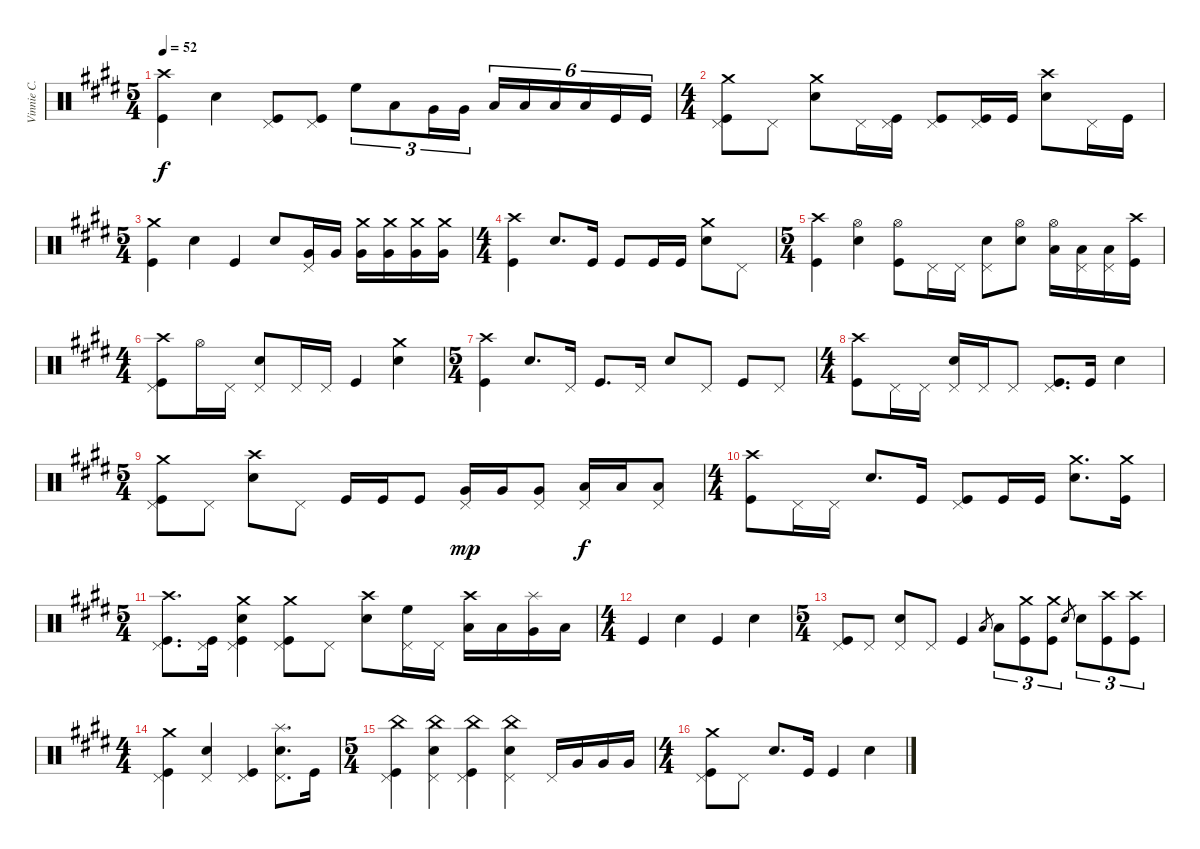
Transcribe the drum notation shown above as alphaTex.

\track ("Vinnie C." "Vinnie C.") {instrument percussion}
\staff {score}
\articulation defaults
\ts (5 4)
\tempo 52
\clef neutral
\ks e
("Crash high (hit)" "Kick (hit)").4{dy f} "Electric Snare (hit)".4 ("Pedal Hi-Hat (hit)" "Kick (hit)").8 ("Pedal Hi-Hat (hit)" "Kick (hit)").8 "High Floor Tom (hit)".8{tu (3 2)} "Low Tom (hit)".8{tu (3 2)} "Very Low Tom (hit)".16{tu (3 2)} "Very Low Tom (hit)".16{tu (3 2)} "Low Floor Tom (hit)".16{tu (6 4)} "Low Floor Tom (hit)".16{tu (6 4)} "Low Floor Tom (hit)".16{tu (6 4)} "Low Floor Tom (hit)".16{tu (6 4)} "Kick (hit)".16{tu (6 4)} "Kick (hit)".16{tu (6 4)} |
\ts (4 4)
("Crash medium (hit)" "Pedal Hi-Hat (hit)" "Kick (hit)").8 "Pedal Hi-Hat (hit)".8 ("Crash medium (hit)" "Electric Snare (hit)").8 "Pedal Hi-Hat (hit)".16 ("Pedal Hi-Hat (hit)" "Kick (hit)").16 ("Pedal Hi-Hat (hit)" "Kick (hit)").8 ("Pedal Hi-Hat (hit)" "Kick (hit)").16 "Kick (hit)".16 ("Crash high (hit)" "Electric Snare (hit)").8 "Pedal Hi-Hat (hit)".16 "Kick (hit)".16 |
\ts (5 4)
("Crash medium (hit)" "Kick (hit)").4 "Electric Snare (hit)".4 "Kick (hit)".4 "Electric Snare (hit)".8 ("Pedal Hi-Hat (hit)" "Very Low Tom (hit)").16 "Very Low Tom (hit)".16 ("Crash medium (hit)" "Very Low Tom (hit)").16 ("Crash medium (hit)" "Very Low Tom (hit)").16 ("Crash medium (hit)" "Very Low Tom (hit)").16 ("Crash medium (hit)" "Very Low Tom (hit)").16 |
\ts (4 4)
("Crash high (hit)" "Kick (hit)").4 "Electric Snare (hit)".8{d} "Kick (hit)".16 "Kick (hit)".8 "Kick (hit)".16 "Kick (hit)".16 ("Crash medium (hit)" "Electric Snare (hit)").8 "Pedal Hi-Hat (hit)".8 |
\ts (5 4)
("Crash high (hit)" "Kick (hit)").4 ("Hi-Hat (open)" "Electric Snare (hit)").4 ("Hi-Hat (open)" "Kick (hit)").8 "Pedal Hi-Hat (hit)".16 "Pedal Hi-Hat (hit)".16 ("Pedal Hi-Hat (hit)" "Electric Snare (hit)").8 ("Hi-Hat (open)" "Electric Snare (hit)").8 ("Hi-Hat (open)" "Low Tom (hit)").16 ("Pedal Hi-Hat (hit)" "Low Tom (hit)").16 ("Pedal Hi-Hat (hit)" "Low Tom (hit)").16 ("Crash high (hit)" "Kick (hit)").16 |
\ts (4 4)
("Crash high (hit)" "Pedal Hi-Hat (hit)" "Kick (hit)").8 "Hi-Hat (open)".16 "Pedal Hi-Hat (hit)".16 ("Pedal Hi-Hat (hit)" "Electric Snare (hit)").8 "Pedal Hi-Hat (hit)".16 "Pedal Hi-Hat (hit)".16 "Kick (hit)".4 ("Crash medium (hit)" "Electric Snare (hit)").4 |
\ts (5 4)
("Crash high (hit)" "Kick (hit)").4 "Electric Snare (hit)".8{d} "Pedal Hi-Hat (hit)".16 "Kick (hit)".8{d} "Pedal Hi-Hat (hit)".16 "Electric Snare (hit)".8 "Pedal Hi-Hat (hit)".8 "Kick (hit)".8 "Pedal Hi-Hat (hit)".8 |
\ts (4 4)
("Crash high (hit)" "Kick (hit)").8 "Pedal Hi-Hat (hit)".16 "Pedal Hi-Hat (hit)".16 ("Pedal Hi-Hat (hit)" "Electric Snare (hit)").16 "Pedal Hi-Hat (hit)".16 "Pedal Hi-Hat (hit)".8 ("Pedal Hi-Hat (hit)" "Kick (hit)").8{d} "Kick (hit)".16 "Electric Snare (hit)".4 |
\ts (5 4)
("Crash medium (hit)" "Pedal Hi-Hat (hit)" "Kick (hit)").8 "Pedal Hi-Hat (hit)".8 ("Crash high (hit)" "Electric Snare (hit)").8 "Pedal Hi-Hat (hit)".8 "Kick (hit)".16 "Kick (hit)".16 "Kick (hit)".8 ("Pedal Hi-Hat (hit)" "Very Low Tom (hit)").16{dy mp} "Very Low Tom (hit)".16 ("Pedal Hi-Hat (hit)" "Very Low Tom (hit)").8 ("Pedal Hi-Hat (hit)" "Low Floor Tom (hit)").16{dy f} "Low Floor Tom (hit)".16 ("Pedal Hi-Hat (hit)" "Low Floor Tom (hit)").8 |
\ts (4 4)
("Crash high (hit)" "Kick (hit)").8 "Pedal Hi-Hat (hit)".16 "Pedal Hi-Hat (hit)".16 "Electric Snare (hit)".8{d} "Kick (hit)".16 ("Pedal Hi-Hat (hit)" "Kick (hit)").8 "Kick (hit)".16 "Kick (hit)".16 ("Crash medium (hit)" "Electric Snare (hit)").8{d} ("Crash medium (hit)" "Kick (hit)").16 |
\ts (5 4)
("Pedal Hi-Hat (hit)" "Crash high (hit)" "Kick (hit)").8{d} ("Pedal Hi-Hat (hit)" "Kick (hit)").16 ("Pedal Hi-Hat (hit)" "Crash medium (hit)" "Electric Snare (hit)" "Kick (hit)").4 ("Pedal Hi-Hat (hit)" "Crash medium (hit)" "Kick (hit)").8 "Pedal Hi-Hat (hit)".8 ("Crash high (hit)" "Electric Snare (hit)").8 ("Pedal Hi-Hat (hit)" "High Floor Tom (hit)").16 "Pedal Hi-Hat (hit)".16 ("Crash high (hit)" "Low Floor Tom (hit)").16 "Low Floor Tom (hit)".16 ("Splash (hit)" "Very Low Tom (hit)").16 "Low Floor Tom (hit)".16 |
\ts (4 4)
"Kick (hit)".4 "Electric Snare (hit)".4 "Kick (hit)".4 "Electric Snare (hit)".4 |
\ts (5 4)
("Pedal Hi-Hat (hit)" "Kick (hit)").8 "Pedal Hi-Hat (hit)".8 ("Pedal Hi-Hat (hit)" "Electric Snare (hit)").8 "Pedal Hi-Hat (hit)".8 "Kick (hit)".4 "Low Tom (hit)".8{gr} "Low Tom (hit)".8{tu (3 2)} ("Crash medium (hit)" "Kick (hit)").8{tu (3 2)} ("Crash medium (hit)" "Kick (hit)").8{tu (3 2)} "Electric Snare (hit)".8{gr} "Electric Snare (hit)".8{tu (3 2)} ("Crash high (hit)" "Kick (hit)").8{tu (3 2)} ("Crash high (hit)" "Kick (hit)").8{tu (3 2)} |
\ts (4 4)
("Pedal Hi-Hat (hit)" "Crash medium (hit)" "Kick (hit)").4 ("Pedal Hi-Hat (hit)" "Electric Snare (hit)").4 ("Pedal Hi-Hat (hit)" "Kick (hit)").4 ("Pedal Hi-Hat (hit)" "Splash (hit)" "Electric Snare (hit)").8{d} "Kick (hit)".16 |
\ts (5 4)
("Pedal Hi-Hat (hit)" "China (hit)" "Kick (hit)").4 ("Pedal Hi-Hat (hit)" "China (hit)" "Electric Snare (hit)").4 ("Pedal Hi-Hat (hit)" "China (hit)" "Kick (hit)").4 ("Pedal Hi-Hat (hit)" "China (hit)" "Electric Snare (hit)").4 "Pedal Hi-Hat (hit)".16 "Very Low Tom (hit)".16 "Very Low Tom (hit)".16 "Very Low Tom (hit)".16 |
\ts (4 4)
("Pedal Hi-Hat (hit)" "Crash medium (hit)" "Kick (hit)").8 "Pedal Hi-Hat (hit)".8 "Electric Snare (hit)".8{d} "Kick (hit)".16 "Kick (hit)".4 "Electric Snare (hit)".4
